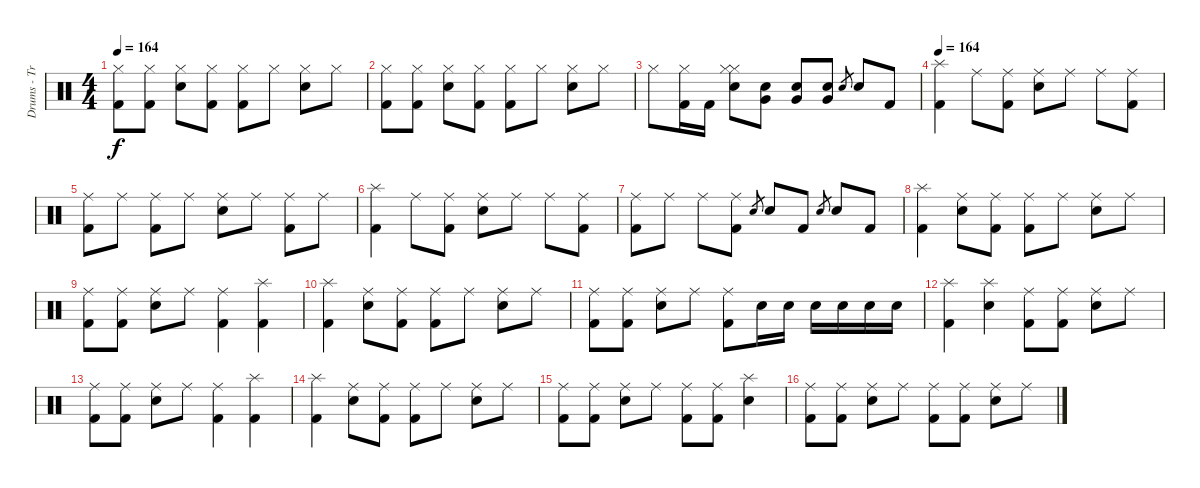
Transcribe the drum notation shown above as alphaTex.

\track ("Drums - Travis Barker" "Drums - Tr") {instrument percussion}
\staff {score}
\articulation defaults
\ts (4 4)
\tempo 164
\clef neutral
\ks c
("Hi-Hat (closed)" "Kick (hit) 2").8{dy f} ("Hi-Hat (closed)" "Kick (hit) 2").8 ("Hi-Hat (closed)" "Electric Snare (hit)").8 ("Hi-Hat (closed)" "Kick (hit) 2").8 ("Hi-Hat (closed)" "Kick (hit) 2").8 "Hi-Hat (closed)".8 ("Hi-Hat (closed)" "Electric Snare (hit)").8 "Hi-Hat (closed)".8 |
("Hi-Hat (closed)" "Kick (hit) 2").8 ("Hi-Hat (closed)" "Kick (hit) 2").8 ("Hi-Hat (closed)" "Electric Snare (hit)").8 ("Hi-Hat (closed)" "Kick (hit) 2").8 ("Hi-Hat (closed)" "Kick (hit) 2").8 "Hi-Hat (closed)".8 ("Hi-Hat (closed)" "Electric Snare (hit)").8 "Hi-Hat (closed)".8 |
"Hi-Hat (closed)".8 ("Hi-Hat (closed)" "Kick (hit) 2").16 "Kick (hit) 2".16 ("Hi-Hat (closed)" "Hi-Hat (closed)" "Electric Snare (hit)").8 ("Very Low Tom (hit)" "Electric Snare (hit)").8 ("Very Low Tom (hit)" "Electric Snare (hit)").8 ("Very Low Tom (hit)" "Electric Snare (hit)").8 "Electric Snare (hit)".8{gr} "Electric Snare (hit)".8 "Kick (hit) 2".8 |
\tempo 164
("Splash (hit)" "Kick (hit) 2").4 "Ride (middle)".8 ("Ride (middle)" "Kick (hit) 2").8 ("Ride (middle)" "Electric Snare (hit)").8 "Ride (middle)".8 "Ride (middle)".8 ("Ride (middle)" "Kick (hit) 2").8 |
("Ride (middle)" "Kick (hit) 2").8 "Ride (middle)".8 ("Ride (middle)" "Kick (hit) 2").8 "Ride (middle)".8 ("Ride (middle)" "Electric Snare (hit)").8 "Ride (middle)".8 ("Ride (middle)" "Kick (hit) 2").8 "Ride (middle)".8 |
("Splash (hit)" "Kick (hit) 2").4 "Ride (middle)".8 ("Ride (middle)" "Kick (hit) 2").8 ("Ride (middle)" "Electric Snare (hit)").8 "Ride (middle)".8 "Ride (middle)".8 ("Ride (middle)" "Kick (hit) 2").8 |
("Ride (middle)" "Kick (hit) 2").8 "Ride (middle)".8 "Ride (middle)".8 ("Ride (middle)" "Kick (hit) 2").8 "Electric Snare (hit)".8{gr} "Electric Snare (hit)".8 "Kick (hit) 2".8 "Electric Snare (hit)".8{gr} "Electric Snare (hit)".8 "Kick (hit) 2".8 |
("Splash (hit)" "Kick (hit) 2").4 ("Ride (middle)" "Electric Snare (hit)").8 ("Ride (middle)" "Kick (hit) 2").8 ("Ride (middle)" "Kick (hit) 2").8 "Ride (middle)".8 ("Ride (middle)" "Electric Snare (hit)").8 "Ride (middle)".8 |
("Ride (middle)" "Kick (hit) 2").8 ("Ride (middle)" "Kick (hit) 2").8 ("Ride (middle)" "Electric Snare (hit)").8 "Ride (middle)".8 ("Ride (middle)" "Kick (hit) 2").4 ("Splash (hit)" "Kick (hit) 2").4 |
("Splash (hit)" "Kick (hit) 2").4 ("Ride (middle)" "Electric Snare (hit)").8 ("Ride (middle)" "Kick (hit) 2").8 ("Ride (middle)" "Kick (hit) 2").8 "Ride (middle)".8 ("Ride (middle)" "Electric Snare (hit)").8 "Ride (middle)".8 |
("Ride (middle)" "Kick (hit) 2").8 ("Ride (middle)" "Kick (hit) 2").8 ("Ride (middle)" "Electric Snare (hit)").8 "Ride (middle)".8 ("Ride (middle)" "Kick (hit) 2").8 "Electric Snare (hit)".16 "Electric Snare (hit)".16 "Electric Snare (hit)".16 "Electric Snare (hit)".16 "Electric Snare (hit)".16 "Electric Snare (hit)".16 |
("Splash (hit)" "Kick (hit) 2").4 ("Splash (hit)" "Electric Snare (hit)").4 ("Ride (middle)" "Kick (hit) 2").8 ("Ride (middle)" "Kick (hit) 2").8 ("Ride (middle)" "Electric Snare (hit)").8 "Ride (middle)".8 |
("Ride (middle)" "Kick (hit) 2").8 ("Ride (middle)" "Kick (hit) 2").8 ("Ride (middle)" "Electric Snare (hit)").8 "Ride (middle)".8 ("Ride (middle)" "Kick (hit) 2").4 ("Splash (hit)" "Kick (hit) 2").4 |
("Splash (hit)" "Kick (hit) 2").4 ("Ride (middle)" "Electric Snare (hit)").8 ("Ride (middle)" "Kick (hit) 2").8 ("Ride (middle)" "Kick (hit) 2").8 "Ride (middle)".8 ("Ride (middle)" "Electric Snare (hit)").8 "Ride (middle)".8 |
("Ride (middle)" "Kick (hit) 2").8 ("Ride (middle)" "Kick (hit) 2").8 ("Ride (middle)" "Electric Snare (hit)").8 "Ride (middle)".8 ("Ride (middle)" "Kick (hit) 2").8 ("Ride (middle)" "Kick (hit) 2").8 ("Splash (hit)" "Electric Snare (hit)").4 |
("Ride (middle)" "Kick (hit) 2").8 ("Ride (middle)" "Kick (hit) 2").8 ("Ride (middle)" "Electric Snare (hit)").8 "Ride (middle)".8 ("Ride (middle)" "Kick (hit) 2").8 ("Ride (middle)" "Kick (hit) 2").8 ("Ride (middle)" "Electric Snare (hit)").8 "Ride (middle)".8
